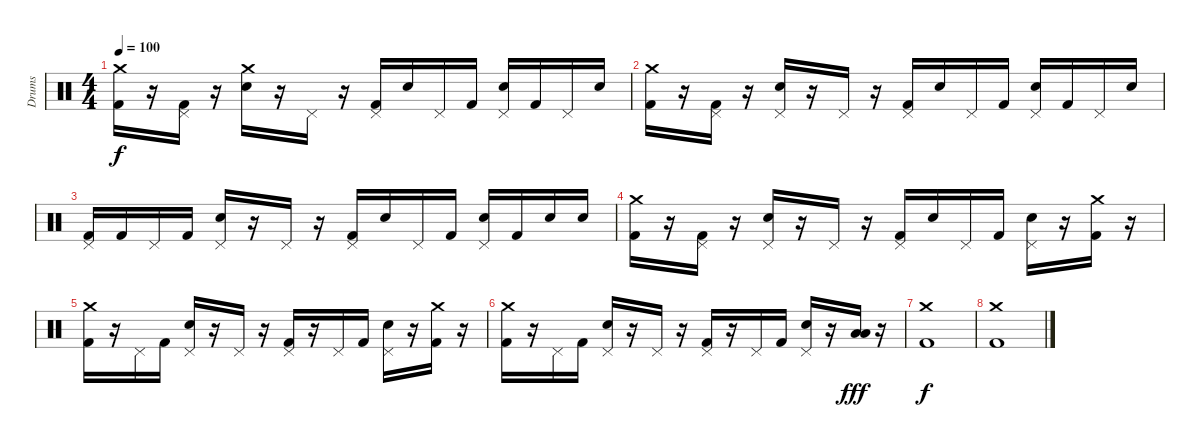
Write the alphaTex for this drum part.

\track ("Drums" "Drums") {instrument percussion}
\staff {score}
\articulation defaults
\ts (4 4)
\tempo 100
\clef neutral
\ks c
("Crash medium (hit)" "Kick (hit) 2").16{dy f} r.16 ("Pedal Hi-Hat (hit)" "Kick (hit) 2").16 r.16 ("Crash medium (hit)" "Electric Snare (hit)").16 r.16 "Pedal Hi-Hat (hit)".16 r.16 ("Pedal Hi-Hat (hit)" "Kick (hit) 2").16 "Electric Snare (hit)".16 "Pedal Hi-Hat (hit)".16 "Kick (hit) 2".16 ("Pedal Hi-Hat (hit)" "Electric Snare (hit)").16 "Kick (hit) 2".16 "Pedal Hi-Hat (hit)".16 "Electric Snare (hit)".16 |
("Crash medium (hit)" "Kick (hit) 2").16 r.16 ("Pedal Hi-Hat (hit)" "Kick (hit) 2").16 r.16 ("Pedal Hi-Hat (hit)" "Electric Snare (hit)").16 r.16 "Pedal Hi-Hat (hit)".16 r.16 ("Pedal Hi-Hat (hit)" "Kick (hit) 2").16 "Electric Snare (hit)".16 "Pedal Hi-Hat (hit)".16 "Kick (hit) 2".16 ("Pedal Hi-Hat (hit)" "Electric Snare (hit)").16 "Kick (hit) 2".16 "Pedal Hi-Hat (hit)".16 "Electric Snare (hit)".16 |
("Pedal Hi-Hat (hit)" "Kick (hit) 2").16 "Kick (hit) 2".16 "Pedal Hi-Hat (hit)".16 "Kick (hit) 2".16 ("Pedal Hi-Hat (hit)" "Electric Snare (hit)").16 r.16 "Pedal Hi-Hat (hit)".16 r.16 ("Pedal Hi-Hat (hit)" "Kick (hit) 2").16 "Electric Snare (hit)".16 "Pedal Hi-Hat (hit)".16 "Kick (hit) 2".16 ("Pedal Hi-Hat (hit)" "Electric Snare (hit)").16 "Kick (hit) 2".16 "Electric Snare (hit)".16 "Electric Snare (hit)".16 |
("Crash medium (hit)" "Kick (hit) 2").16 r.16 ("Pedal Hi-Hat (hit)" "Kick (hit) 2").16 r.16 ("Pedal Hi-Hat (hit)" "Electric Snare (hit)").16 r.16 "Pedal Hi-Hat (hit)".16 r.16 ("Pedal Hi-Hat (hit)" "Kick (hit) 2").16 "Electric Snare (hit)".16 "Pedal Hi-Hat (hit)".16 "Kick (hit) 2".16 ("Pedal Hi-Hat (hit)" "Electric Snare (hit)").16 r.16 ("Crash medium (hit)" "Kick (hit) 2").16 r.16 |
("Crash medium (hit)" "Kick (hit) 2").16 r.16 "Pedal Hi-Hat (hit)".16 "Kick (hit) 2".16 ("Pedal Hi-Hat (hit)" "Electric Snare (hit)").16 r.16 "Pedal Hi-Hat (hit)".16 r.16 ("Pedal Hi-Hat (hit)" "Kick (hit) 2").16 r.16 "Pedal Hi-Hat (hit)".16 "Kick (hit) 2".16 ("Pedal Hi-Hat (hit)" "Electric Snare (hit)").16 r.16 ("Crash medium (hit)" "Kick (hit) 2").16 r.16 |
("Crash medium (hit)" "Kick (hit) 2").16 r.16 "Pedal Hi-Hat (hit)".16 "Kick (hit) 2".16 ("Pedal Hi-Hat (hit)" "Electric Snare (hit)").16 r.16 "Pedal Hi-Hat (hit)".16 r.16 ("Pedal Hi-Hat (hit)" "Kick (hit) 2").16 r.16 "Pedal Hi-Hat (hit)".16 "Kick (hit) 2".16 ("Pedal Hi-Hat (hit)" "Electric Snare (hit)").16 r.16 ("Low Tom (hit)" "Low Floor Tom (hit)").16{dy fff} r.16 |
("Crash medium (hit)" "Kick (hit) 2").1{dy f} |
("Crash medium (hit)" "Kick (hit) 2").1
